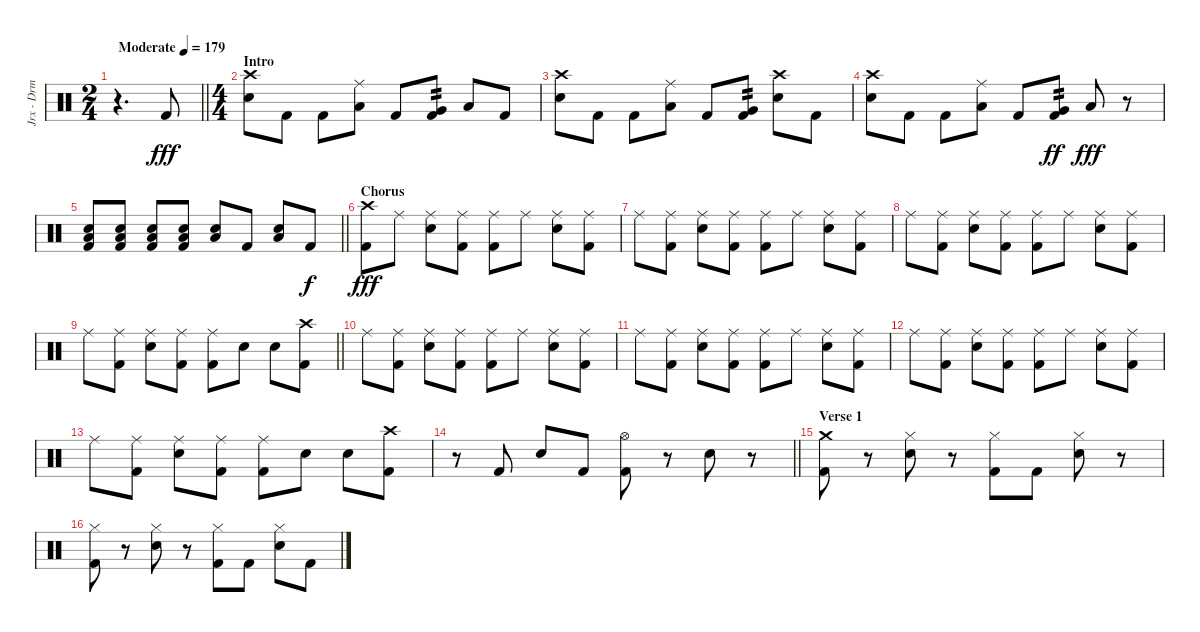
\track ("Jrx - Drm" "Jrx - Drm") {instrument percussion}
\staff {score}
\articulation defaults
\ts (2 4)
\tempo (179 "Moderate")
\clef neutral
\barLineRight lightlight
\ks c
r.4{d dy fff} "Kick (hit) 2".8 |
\ts (4 4)
\section ("" "Intro")
("Snare (hit) 2" "Crash high (hit)").8 "Kick (hit) 2".8 "Kick (hit) 2".8 ("Low Tom (hit)" "Ride (middle)").8 "Kick (hit) 2".8 ("Kick (hit) 2" "Very Low Tom (hit)").8{tp 2} "Low Floor Tom (hit)".8 "Kick (hit) 2".8 |
("Snare (hit) 2" "Crash high (hit)").8 "Kick (hit) 2".8 "Kick (hit) 2".8 ("Low Tom (hit)" "Ride (middle)").8 "Kick (hit) 2".8 ("Kick (hit) 2" "Very Low Tom (hit)").8{tp 2} ("Snare (hit) 2" "Crash high (hit)").8 "Kick (hit) 2".8 |
("Snare (hit) 2" "Crash high (hit)").8 "Kick (hit) 2".8 "Kick (hit) 2".8 ("Low Tom (hit)" "Ride (middle)").8 "Kick (hit) 2".8 ("Kick (hit) 2" "Very Low Tom (hit)").8{tp 2 dy ff} "Low Floor Tom (hit)".8{dy fff} r.8 |
\barLineRight lightlight
("Snare (hit) 2" "Kick (hit) 2" "Low Floor Tom (hit)").8 ("Snare (hit) 2" "Kick (hit) 2" "Low Floor Tom (hit)").8 ("Snare (hit) 2" "Kick (hit) 2" "Low Floor Tom (hit)").8 ("Snare (hit) 2" "Kick (hit) 2" "Low Floor Tom (hit)").8 ("Snare (hit) 2" "Low Floor Tom (hit)").8 "Kick (hit) 2".8 ("Snare (hit) 2" "Low Floor Tom (hit)").8 "Kick (hit) 2".8{dy f} |
\section ("" "Chorus")
("Kick (hit) 2" "Crash high (hit)").8{dy fff} "Ride (middle)".8 ("Snare (hit) 2" "Ride (middle)").8 ("Kick (hit) 2" "Ride (middle)").8 ("Kick (hit) 2" "Ride (middle)").8 "Ride (middle)".8 ("Snare (hit) 2" "Ride (middle)").8 ("Kick (hit) 2" "Ride (middle)").8 |
"Ride (middle)".8 ("Kick (hit) 2" "Ride (middle)").8 ("Snare (hit) 2" "Ride (middle)").8 ("Kick (hit) 2" "Ride (middle)").8 ("Kick (hit) 2" "Ride (middle)").8 "Ride (middle)".8 ("Snare (hit) 2" "Ride (middle)").8 ("Kick (hit) 2" "Ride (middle)").8 |
"Ride (middle)".8 ("Kick (hit) 2" "Ride (middle)").8 ("Snare (hit) 2" "Ride (middle)").8 ("Kick (hit) 2" "Ride (middle)").8 ("Kick (hit) 2" "Ride (middle)").8 "Ride (middle)".8 ("Snare (hit) 2" "Ride (middle)").8 ("Kick (hit) 2" "Ride (middle)").8 |
\barLineRight lightlight "Ride (middle)".8
("Kick (hit) 2" "Ride (middle)").8 ("Snare (hit) 2" "Ride (middle)").8 ("Kick (hit) 2" "Ride (middle)").8 ("Kick (hit) 2" "Ride (middle)").8 "Snare (hit) 2".8 "Snare (hit) 2".8 ("Kick (hit) 2" "Crash high (hit)").8 |
"Ride (middle)".8 ("Kick (hit) 2" "Ride (middle)").8 ("Snare (hit) 2" "Ride (middle)").8 ("Kick (hit) 2" "Ride (middle)").8 ("Kick (hit) 2" "Ride (middle)").8 "Ride (middle)".8 ("Snare (hit) 2" "Ride (middle)").8 ("Kick (hit) 2" "Ride (middle)").8 |
"Ride (middle)".8 ("Kick (hit) 2" "Ride (middle)").8 ("Snare (hit) 2" "Ride (middle)").8 ("Kick (hit) 2" "Ride (middle)").8 ("Kick (hit) 2" "Ride (middle)").8 "Ride (middle)".8 ("Snare (hit) 2" "Ride (middle)").8 ("Kick (hit) 2" "Ride (middle)").8 |
"Ride (middle)".8 ("Kick (hit) 2" "Ride (middle)").8 ("Snare (hit) 2" "Ride (middle)").8 ("Kick (hit) 2" "Ride (middle)").8 ("Kick (hit) 2" "Ride (middle)").8 "Ride (middle)".8 ("Snare (hit) 2" "Ride (middle)").8 ("Kick (hit) 2" "Ride (middle)").8 |
"Ride (middle)".8 ("Kick (hit) 2" "Ride (middle)").8 ("Snare (hit) 2" "Ride (middle)").8 ("Kick (hit) 2" "Ride (middle)").8 ("Kick (hit) 2" "Ride (middle)").8 "Snare (hit) 2".8 "Snare (hit) 2".8 ("Kick (hit) 2" "Crash high (hit)").8 |
\barLineRight lightlight
r.8 "Kick (hit) 2".8 "Snare (hit) 2".8 "Kick (hit) 2".8 ("Hi-Hat (open)" "Kick (hit) 2").8 r.8 "Snare (hit) 2".8 r.8 |
\section ("" "Verse 1")
("Kick (hit) 2" "Crash medium (hit)").8 r.8 ("Hi-Hat (closed)" "Snare (hit) 2").8 r.8 ("Hi-Hat (closed)" "Kick (hit) 2").8 "Kick (hit) 2".8 ("Hi-Hat (closed)" "Snare (hit) 2").8 r.8 |
("Hi-Hat (closed)" "Kick (hit) 2").8 r.8 ("Hi-Hat (closed)" "Snare (hit) 2").8 r.8 ("Hi-Hat (closed)" "Kick (hit) 2").8 "Kick (hit) 2".8 ("Hi-Hat (closed)" "Snare (hit) 2").8 "Kick (hit) 2".8
